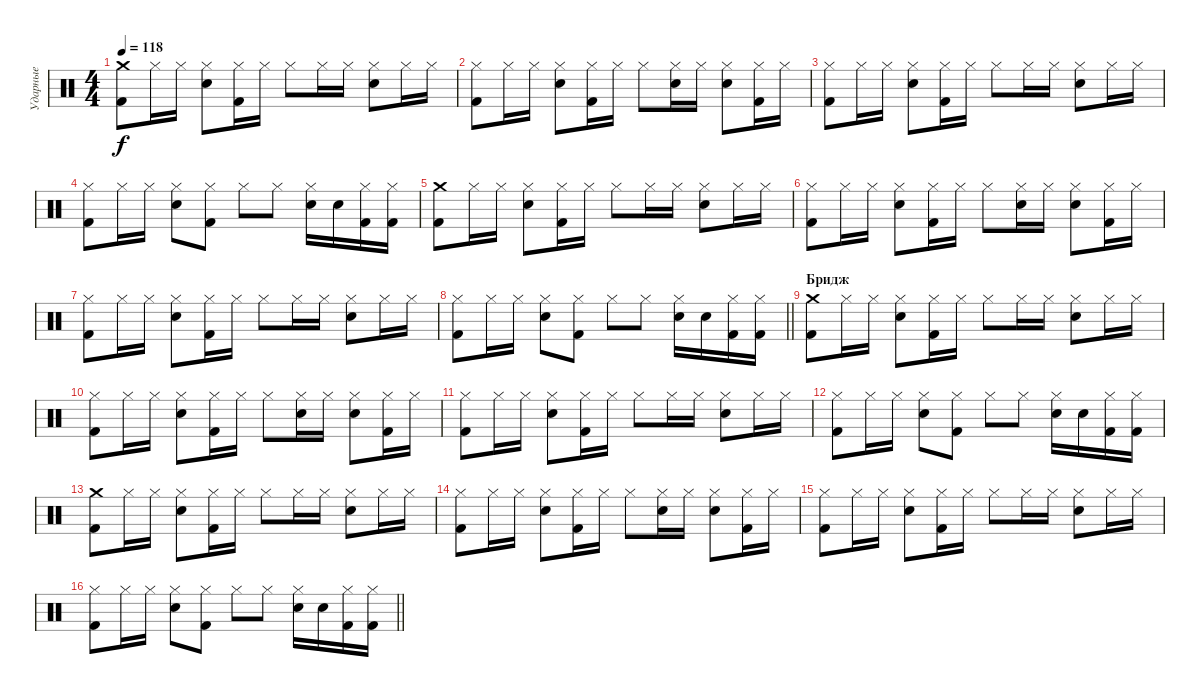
\track ("Ударные" "Ударные") {instrument percussion}
\staff {score}
\articulation defaults
\ts (4 4)
\tempo 118
\clef neutral
\ks c
("Crash medium (hit)" "Kick (hit) 2").8{dy f} "Hi-Hat (closed)".16 "Hi-Hat (closed)".16 ("Hi-Hat (closed)" "Electric Snare (hit)").8 ("Hi-Hat (closed)" "Kick (hit) 2").16 "Hi-Hat (closed)".16 "Hi-Hat (closed)".8 "Hi-Hat (closed)".16 "Hi-Hat (closed)".16 ("Hi-Hat (closed)" "Electric Snare (hit)").8 "Hi-Hat (closed)".16 "Hi-Hat (closed)".16 |
("Hi-Hat (closed)" "Kick (hit) 2").8 "Hi-Hat (closed)".16 "Hi-Hat (closed)".16 ("Hi-Hat (closed)" "Electric Snare (hit)").8 ("Hi-Hat (closed)" "Kick (hit) 2").16 "Hi-Hat (closed)".16 "Hi-Hat (closed)".8 ("Hi-Hat (closed)" "Electric Snare (hit)").16 "Hi-Hat (closed)".16 ("Hi-Hat (closed)" "Electric Snare (hit)").8 ("Hi-Hat (closed)" "Kick (hit) 2").16 "Hi-Hat (closed)".16 |
("Hi-Hat (closed)" "Kick (hit) 2").8 "Hi-Hat (closed)".16 "Hi-Hat (closed)".16 ("Hi-Hat (closed)" "Electric Snare (hit)").8 ("Hi-Hat (closed)" "Kick (hit) 2").16 "Hi-Hat (closed)".16 "Hi-Hat (closed)".8 "Hi-Hat (closed)".16 "Hi-Hat (closed)".16 ("Hi-Hat (closed)" "Electric Snare (hit)").8 "Hi-Hat (closed)".16 "Hi-Hat (closed)".16 |
("Hi-Hat (closed)" "Kick (hit) 2").8 "Hi-Hat (closed)".16 "Hi-Hat (closed)".16 ("Hi-Hat (closed)" "Electric Snare (hit)").8 ("Hi-Hat (closed)" "Kick (hit) 2").8 "Hi-Hat (closed)".8 "Hi-Hat (closed)".8 ("Hi-Hat (closed)" "Electric Snare (hit)").16 "Electric Snare (hit)".16 ("Hi-Hat (closed)" "Kick (hit) 2").16 ("Hi-Hat (closed)" "Kick (hit) 2").16 |
("Crash medium (hit)" "Kick (hit) 2").8 "Hi-Hat (closed)".16 "Hi-Hat (closed)".16 ("Hi-Hat (closed)" "Electric Snare (hit)").8 ("Hi-Hat (closed)" "Kick (hit) 2").16 "Hi-Hat (closed)".16 "Hi-Hat (closed)".8 "Hi-Hat (closed)".16 "Hi-Hat (closed)".16 ("Hi-Hat (closed)" "Electric Snare (hit)").8 "Hi-Hat (closed)".16 "Hi-Hat (closed)".16 |
("Hi-Hat (closed)" "Kick (hit) 2").8 "Hi-Hat (closed)".16 "Hi-Hat (closed)".16 ("Hi-Hat (closed)" "Electric Snare (hit)").8 ("Hi-Hat (closed)" "Kick (hit) 2").16 "Hi-Hat (closed)".16 "Hi-Hat (closed)".8 ("Hi-Hat (closed)" "Electric Snare (hit)").16 "Hi-Hat (closed)".16 ("Hi-Hat (closed)" "Electric Snare (hit)").8 ("Hi-Hat (closed)" "Kick (hit) 2").16 "Hi-Hat (closed)".16 |
("Hi-Hat (closed)" "Kick (hit) 2").8 "Hi-Hat (closed)".16 "Hi-Hat (closed)".16 ("Hi-Hat (closed)" "Electric Snare (hit)").8 ("Hi-Hat (closed)" "Kick (hit) 2").16 "Hi-Hat (closed)".16 "Hi-Hat (closed)".8 "Hi-Hat (closed)".16 "Hi-Hat (closed)".16 ("Hi-Hat (closed)" "Electric Snare (hit)").8 "Hi-Hat (closed)".16 "Hi-Hat (closed)".16 |
\barLineRight lightlight
("Hi-Hat (closed)" "Kick (hit) 2").8 "Hi-Hat (closed)".16 "Hi-Hat (closed)".16 ("Hi-Hat (closed)" "Electric Snare (hit)").8 ("Hi-Hat (closed)" "Kick (hit) 2").8 "Hi-Hat (closed)".8 "Hi-Hat (closed)".8 ("Hi-Hat (closed)" "Electric Snare (hit)").16 "Electric Snare (hit)".16 ("Hi-Hat (closed)" "Kick (hit) 2").16 ("Hi-Hat (closed)" "Kick (hit) 2").16 |
\section ("" "Бридж")
("Crash medium (hit)" "Kick (hit) 2").8 "Hi-Hat (closed)".16 "Hi-Hat (closed)".16 ("Hi-Hat (closed)" "Electric Snare (hit)").8 ("Hi-Hat (closed)" "Kick (hit) 2").16 "Hi-Hat (closed)".16 "Hi-Hat (closed)".8 "Hi-Hat (closed)".16 "Hi-Hat (closed)".16 ("Hi-Hat (closed)" "Electric Snare (hit)").8 "Hi-Hat (closed)".16 "Hi-Hat (closed)".16 |
("Hi-Hat (closed)" "Kick (hit) 2").8 "Hi-Hat (closed)".16 "Hi-Hat (closed)".16 ("Hi-Hat (closed)" "Electric Snare (hit)").8 ("Hi-Hat (closed)" "Kick (hit) 2").16 "Hi-Hat (closed)".16 "Hi-Hat (closed)".8 ("Hi-Hat (closed)" "Electric Snare (hit)").16 "Hi-Hat (closed)".16 ("Hi-Hat (closed)" "Electric Snare (hit)").8 ("Hi-Hat (closed)" "Kick (hit) 2").16 "Hi-Hat (closed)".16 |
("Hi-Hat (closed)" "Kick (hit) 2").8 "Hi-Hat (closed)".16 "Hi-Hat (closed)".16 ("Hi-Hat (closed)" "Electric Snare (hit)").8 ("Hi-Hat (closed)" "Kick (hit) 2").16 "Hi-Hat (closed)".16 "Hi-Hat (closed)".8 "Hi-Hat (closed)".16 "Hi-Hat (closed)".16 ("Hi-Hat (closed)" "Electric Snare (hit)").8 "Hi-Hat (closed)".16 "Hi-Hat (closed)".16 |
("Hi-Hat (closed)" "Kick (hit) 2").8 "Hi-Hat (closed)".16 "Hi-Hat (closed)".16 ("Hi-Hat (closed)" "Electric Snare (hit)").8 ("Hi-Hat (closed)" "Kick (hit) 2").8 "Hi-Hat (closed)".8 "Hi-Hat (closed)".8 ("Hi-Hat (closed)" "Electric Snare (hit)").16 "Electric Snare (hit)".16 ("Hi-Hat (closed)" "Kick (hit) 2").16 ("Hi-Hat (closed)" "Kick (hit) 2").16 |
("Crash medium (hit)" "Kick (hit) 2").8 "Hi-Hat (closed)".16 "Hi-Hat (closed)".16 ("Hi-Hat (closed)" "Electric Snare (hit)").8 ("Hi-Hat (closed)" "Kick (hit) 2").16 "Hi-Hat (closed)".16 "Hi-Hat (closed)".8 "Hi-Hat (closed)".16 "Hi-Hat (closed)".16 ("Hi-Hat (closed)" "Electric Snare (hit)").8 "Hi-Hat (closed)".16 "Hi-Hat (closed)".16 |
("Hi-Hat (closed)" "Kick (hit) 2").8 "Hi-Hat (closed)".16 "Hi-Hat (closed)".16 ("Hi-Hat (closed)" "Electric Snare (hit)").8 ("Hi-Hat (closed)" "Kick (hit) 2").16 "Hi-Hat (closed)".16 "Hi-Hat (closed)".8 ("Hi-Hat (closed)" "Electric Snare (hit)").16 "Hi-Hat (closed)".16 ("Hi-Hat (closed)" "Electric Snare (hit)").8 ("Hi-Hat (closed)" "Kick (hit) 2").16 "Hi-Hat (closed)".16 |
("Hi-Hat (closed)" "Kick (hit) 2").8 "Hi-Hat (closed)".16 "Hi-Hat (closed)".16 ("Hi-Hat (closed)" "Electric Snare (hit)").8 ("Hi-Hat (closed)" "Kick (hit) 2").16 "Hi-Hat (closed)".16 "Hi-Hat (closed)".8 "Hi-Hat (closed)".16 "Hi-Hat (closed)".16 ("Hi-Hat (closed)" "Electric Snare (hit)").8 "Hi-Hat (closed)".16 "Hi-Hat (closed)".16 |
\barLineRight lightlight
("Hi-Hat (closed)" "Kick (hit) 2").8 "Hi-Hat (closed)".16 "Hi-Hat (closed)".16 ("Hi-Hat (closed)" "Electric Snare (hit)").8 ("Hi-Hat (closed)" "Kick (hit) 2").8 "Hi-Hat (closed)".8 "Hi-Hat (closed)".8 ("Hi-Hat (closed)" "Electric Snare (hit)").16 "Electric Snare (hit)".16 ("Hi-Hat (closed)" "Kick (hit) 2").16 ("Hi-Hat (closed)" "Kick (hit) 2").16
